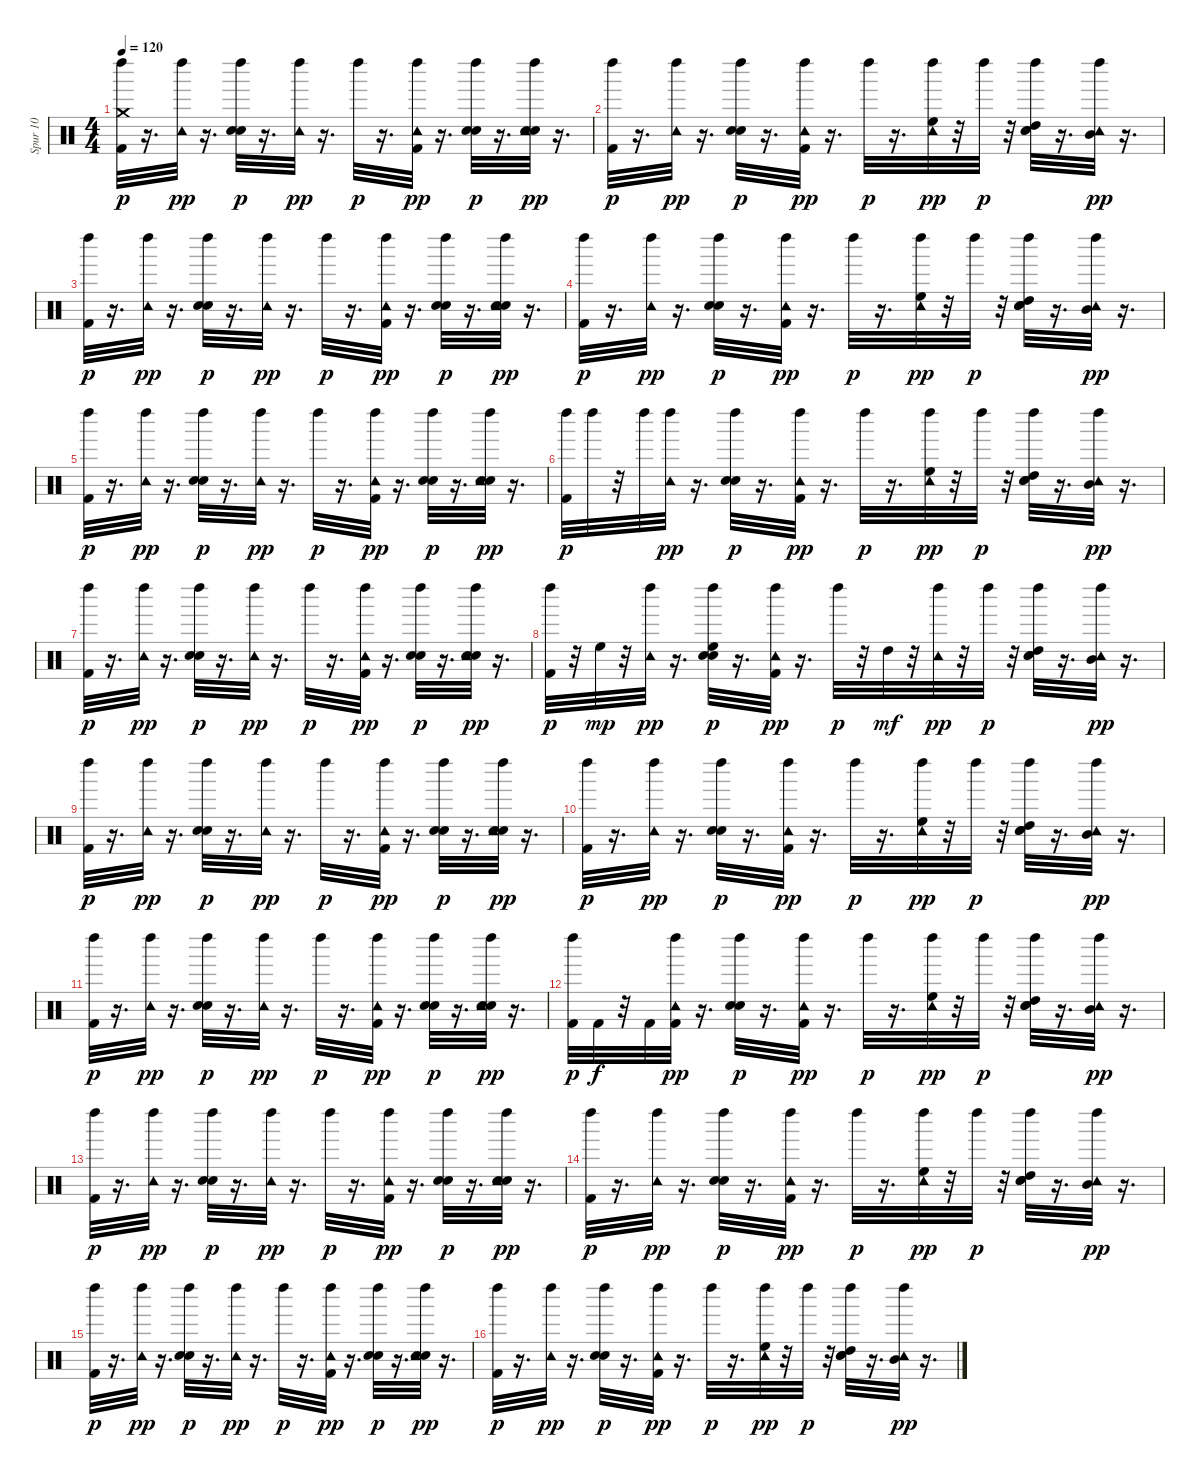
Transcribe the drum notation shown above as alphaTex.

\track ("Spur 10" "Spur 10") {instrument percussion}
\staff {score}
\articulation defaults
\ts (4 4)
\tempo 120
\clef neutral
\ks c
("Kick (hit) 2" "Crash medium (hit)" "Left Maraca (hit)").32{dy p} r.16{d} ("Tambourine (hit)" "Left Maraca (hit)").32{dy pp} r.16{d} ("Hand Clap (hit)" "Electric Snare (hit)" "Left Maraca (hit)").32{dy p} r.16{d} ("Tambourine (hit)" "Left Maraca (hit)").32{dy pp} r.16{d} "Left Maraca (hit)".32{dy p} r.16{d} ("Kick (hit) 2" "Tambourine (hit)" "Left Maraca (hit)").32{dy pp} r.16{d} ("Hand Clap (hit)" "Electric Snare (hit)" "Left Maraca (hit)").32{dy p} r.16{d} ("Hand Clap (hit)" "Electric Snare (hit)" "Tambourine (hit)" "Left Maraca (hit)").32{dy pp} r.16{d} |
("Kick (hit) 2" "Left Maraca (hit)").32{dy p} r.16{d} ("Tambourine (hit)" "Left Maraca (hit)").32{dy pp} r.16{d} ("Hand Clap (hit)" "Electric Snare (hit)" "Left Maraca (hit)").32{dy p} r.16{d} ("Kick (hit) 2" "Tambourine (hit)" "Left Maraca (hit)").32{dy pp} r.16{d} "Left Maraca (hit)".32{dy p} r.16{d} ("High Floor Tom (hit)" "Tambourine (hit)" "Left Maraca (hit)").32{dy pp} r.32 "Left Maraca (hit)".32{dy p} r.32 ("Hand Clap (hit)" "Electric Snare (hit)" "High Tom (hit)" "Left Maraca (hit)").32 r.16{d} ("Mid Tom (hit)" "Tambourine (hit)" "Left Maraca (hit)").32{dy pp} r.16{d} |
("Kick (hit) 2" "Left Maraca (hit)").32{dy p} r.16{d} ("Tambourine (hit)" "Left Maraca (hit)").32{dy pp} r.16{d} ("Hand Clap (hit)" "Electric Snare (hit)" "Left Maraca (hit)").32{dy p} r.16{d} ("Tambourine (hit)" "Left Maraca (hit)").32{dy pp} r.16{d} "Left Maraca (hit)".32{dy p} r.16{d} ("Kick (hit) 2" "Tambourine (hit)" "Left Maraca (hit)").32{dy pp} r.16{d} ("Hand Clap (hit)" "Electric Snare (hit)" "Left Maraca (hit)").32{dy p} r.16{d} ("Hand Clap (hit)" "Electric Snare (hit)" "Tambourine (hit)" "Left Maraca (hit)").32{dy pp} r.16{d} |
("Kick (hit) 2" "Left Maraca (hit)").32{dy p} r.16{d} ("Tambourine (hit)" "Left Maraca (hit)").32{dy pp} r.16{d} ("Hand Clap (hit)" "Electric Snare (hit)" "Left Maraca (hit)").32{dy p} r.16{d} ("Kick (hit) 2" "Tambourine (hit)" "Left Maraca (hit)").32{dy pp} r.16{d} "Left Maraca (hit)".32{dy p} r.16{d} ("High Floor Tom (hit)" "Tambourine (hit)" "Left Maraca (hit)").32{dy pp} r.32 "Left Maraca (hit)".32{dy p} r.32 ("Hand Clap (hit)" "Electric Snare (hit)" "High Tom (hit)" "Left Maraca (hit)").32 r.16{d} ("Mid Tom (hit)" "Tambourine (hit)" "Left Maraca (hit)").32{dy pp} r.16{d} |
("Kick (hit) 2" "Left Maraca (hit)").32{dy p} r.16{d} ("Tambourine (hit)" "Left Maraca (hit)").32{dy pp} r.16{d} ("Hand Clap (hit)" "Electric Snare (hit)" "Left Maraca (hit)").32{dy p} r.16{d} ("Tambourine (hit)" "Left Maraca (hit)").32{dy pp} r.16{d} "Left Maraca (hit)".32{dy p} r.16{d} ("Kick (hit) 2" "Tambourine (hit)" "Left Maraca (hit)").32{dy pp} r.16{d} ("Hand Clap (hit)" "Electric Snare (hit)" "Left Maraca (hit)").32{dy p} r.16{d} ("Hand Clap (hit)" "Electric Snare (hit)" "Tambourine (hit)" "Left Maraca (hit)").32{dy pp} r.16{d} |
("Kick (hit) 2" "Left Maraca (hit)").32{dy p} "Left Maraca (hit)".32 r.32 "Left Maraca (hit)".32 ("Tambourine (hit)" "Left Maraca (hit)").32{dy pp} r.16{d} ("Hand Clap (hit)" "Electric Snare (hit)" "Left Maraca (hit)").32{dy p} r.16{d} ("Kick (hit) 2" "Tambourine (hit)" "Left Maraca (hit)").32{dy pp} r.16{d} "Left Maraca (hit)".32{dy p} r.16{d} ("High Floor Tom (hit)" "Tambourine (hit)" "Left Maraca (hit)").32{dy pp} r.32 "Left Maraca (hit)".32{dy p} r.32 ("Hand Clap (hit)" "Electric Snare (hit)" "High Tom (hit)" "Left Maraca (hit)").32 r.16{d} ("Mid Tom (hit)" "Tambourine (hit)" "Left Maraca (hit)").32{dy pp} r.16{d} |
("Kick (hit) 2" "Left Maraca (hit)").32{dy p} r.16{d} ("Tambourine (hit)" "Left Maraca (hit)").32{dy pp} r.16{d} ("Hand Clap (hit)" "Electric Snare (hit)" "Left Maraca (hit)").32{dy p} r.16{d} ("Tambourine (hit)" "Left Maraca (hit)").32{dy pp} r.16{d} "Left Maraca (hit)".32{dy p} r.16{d} ("Kick (hit) 2" "Tambourine (hit)" "Left Maraca (hit)").32{dy pp} r.16{d} ("Hand Clap (hit)" "Electric Snare (hit)" "Left Maraca (hit)").32{dy p} r.16{d} ("Hand Clap (hit)" "Electric Snare (hit)" "Tambourine (hit)" "Left Maraca (hit)").32{dy pp} r.16{d} |
("Kick (hit) 2" "Left Maraca (hit)").32{dy p} r.32 "High Floor Tom (hit)".32{dy mp} r.32 ("Tambourine (hit)" "Left Maraca (hit)").32{dy pp} r.16{d} ("Hand Clap (hit)" "Electric Snare (hit)" "High Floor Tom (hit)" "Left Maraca (hit)").32{dy p} r.16{d} ("Kick (hit) 2" "Tambourine (hit)" "Left Maraca (hit)").32{dy pp} r.16{d} "Left Maraca (hit)".32{dy p} r.32 "High Tom (hit)".32{dy mf} r.32 ("Tambourine (hit)" "Left Maraca (hit)").32{dy pp} r.32 "Left Maraca (hit)".32{dy p} r.32 ("Hand Clap (hit)" "Electric Snare (hit)" "High Tom (hit)" "Left Maraca (hit)").32 r.16{d} ("Mid Tom (hit)" "Tambourine (hit)" "Left Maraca (hit)").32{dy pp} r.16{d} |
("Kick (hit) 2" "Left Maraca (hit)").32{dy p} r.16{d} ("Tambourine (hit)" "Left Maraca (hit)").32{dy pp} r.16{d} ("Hand Clap (hit)" "Electric Snare (hit)" "Left Maraca (hit)").32{dy p} r.16{d} ("Tambourine (hit)" "Left Maraca (hit)").32{dy pp} r.16{d} "Left Maraca (hit)".32{dy p} r.16{d} ("Kick (hit) 2" "Tambourine (hit)" "Left Maraca (hit)").32{dy pp} r.16{d} ("Hand Clap (hit)" "Electric Snare (hit)" "Left Maraca (hit)").32{dy p} r.16{d} ("Hand Clap (hit)" "Electric Snare (hit)" "Tambourine (hit)" "Left Maraca (hit)").32{dy pp} r.16{d} |
("Kick (hit) 2" "Left Maraca (hit)").32{dy p} r.16{d} ("Tambourine (hit)" "Left Maraca (hit)").32{dy pp} r.16{d} ("Hand Clap (hit)" "Electric Snare (hit)" "Left Maraca (hit)").32{dy p} r.16{d} ("Kick (hit) 2" "Tambourine (hit)" "Left Maraca (hit)").32{dy pp} r.16{d} "Left Maraca (hit)".32{dy p} r.16{d} ("High Floor Tom (hit)" "Tambourine (hit)" "Left Maraca (hit)").32{dy pp} r.32 "Left Maraca (hit)".32{dy p} r.32 ("Hand Clap (hit)" "Electric Snare (hit)" "High Tom (hit)" "Left Maraca (hit)").32 r.16{d} ("Mid Tom (hit)" "Tambourine (hit)" "Left Maraca (hit)").32{dy pp} r.16{d} |
("Kick (hit) 2" "Left Maraca (hit)").32{dy p} r.16{d} ("Tambourine (hit)" "Left Maraca (hit)").32{dy pp} r.16{d} ("Hand Clap (hit)" "Electric Snare (hit)" "Left Maraca (hit)").32{dy p} r.16{d} ("Tambourine (hit)" "Left Maraca (hit)").32{dy pp} r.16{d} "Left Maraca (hit)".32{dy p} r.16{d} ("Kick (hit) 2" "Tambourine (hit)" "Left Maraca (hit)").32{dy pp} r.16{d} ("Hand Clap (hit)" "Electric Snare (hit)" "Left Maraca (hit)").32{dy p} r.16{d} ("Hand Clap (hit)" "Electric Snare (hit)" "Tambourine (hit)" "Left Maraca (hit)").32{dy pp} r.16{d} |
("Kick (hit) 2" "Left Maraca (hit)").32{dy p} "Kick (hit) 2".32{dy f} r.32 "Kick (hit) 2".32 ("Kick (hit) 2" "Tambourine (hit)" "Left Maraca (hit)").32{dy pp} r.16{d} ("Hand Clap (hit)" "Electric Snare (hit)" "Left Maraca (hit)").32{dy p} r.16{d} ("Kick (hit) 2" "Tambourine (hit)" "Left Maraca (hit)").32{dy pp} r.16{d} "Left Maraca (hit)".32{dy p} r.16{d} ("High Floor Tom (hit)" "Tambourine (hit)" "Left Maraca (hit)").32{dy pp} r.32 "Left Maraca (hit)".32{dy p} r.32 ("Hand Clap (hit)" "Electric Snare (hit)" "High Tom (hit)" "Left Maraca (hit)").32 r.16{d} ("Mid Tom (hit)" "Tambourine (hit)" "Left Maraca (hit)").32{dy pp} r.16{d} |
("Kick (hit) 2" "Left Maraca (hit)").32{dy p} r.16{d} ("Tambourine (hit)" "Left Maraca (hit)").32{dy pp} r.16{d} ("Hand Clap (hit)" "Electric Snare (hit)" "Left Maraca (hit)").32{dy p} r.16{d} ("Tambourine (hit)" "Left Maraca (hit)").32{dy pp} r.16{d} "Left Maraca (hit)".32{dy p} r.16{d} ("Kick (hit) 2" "Tambourine (hit)" "Left Maraca (hit)").32{dy pp} r.16{d} ("Hand Clap (hit)" "Electric Snare (hit)" "Left Maraca (hit)").32{dy p} r.16{d} ("Hand Clap (hit)" "Electric Snare (hit)" "Tambourine (hit)" "Left Maraca (hit)").32{dy pp} r.16{d} |
("Kick (hit) 2" "Left Maraca (hit)").32{dy p} r.16{d} ("Tambourine (hit)" "Left Maraca (hit)").32{dy pp} r.16{d} ("Hand Clap (hit)" "Electric Snare (hit)" "Left Maraca (hit)").32{dy p} r.16{d} ("Kick (hit) 2" "Tambourine (hit)" "Left Maraca (hit)").32{dy pp} r.16{d} "Left Maraca (hit)".32{dy p} r.16{d} ("High Floor Tom (hit)" "Tambourine (hit)" "Left Maraca (hit)").32{dy pp} r.32 "Left Maraca (hit)".32{dy p} r.32 ("Hand Clap (hit)" "Electric Snare (hit)" "High Tom (hit)" "Left Maraca (hit)").32 r.16{d} ("Mid Tom (hit)" "Tambourine (hit)" "Left Maraca (hit)").32{dy pp} r.16{d} |
("Kick (hit) 2" "Left Maraca (hit)").32{dy p} r.16{d} ("Tambourine (hit)" "Left Maraca (hit)").32{dy pp} r.16{d} ("Hand Clap (hit)" "Electric Snare (hit)" "Left Maraca (hit)").32{dy p} r.16{d} ("Tambourine (hit)" "Left Maraca (hit)").32{dy pp} r.16{d} "Left Maraca (hit)".32{dy p} r.16{d} ("Kick (hit) 2" "Tambourine (hit)" "Left Maraca (hit)").32{dy pp} r.16{d} ("Hand Clap (hit)" "Electric Snare (hit)" "Left Maraca (hit)").32{dy p} r.16{d} ("Hand Clap (hit)" "Electric Snare (hit)" "Tambourine (hit)" "Left Maraca (hit)").32{dy pp} r.16{d} |
("Kick (hit) 2" "Left Maraca (hit)").32{dy p} r.16{d} ("Tambourine (hit)" "Left Maraca (hit)").32{dy pp} r.16{d} ("Hand Clap (hit)" "Electric Snare (hit)" "Left Maraca (hit)").32{dy p} r.16{d} ("Kick (hit) 2" "Tambourine (hit)" "Left Maraca (hit)").32{dy pp} r.16{d} "Left Maraca (hit)".32{dy p} r.16{d} ("High Floor Tom (hit)" "Tambourine (hit)" "Left Maraca (hit)").32{dy pp} r.32 "Left Maraca (hit)".32{dy p} r.32 ("Hand Clap (hit)" "Electric Snare (hit)" "High Tom (hit)" "Left Maraca (hit)").32 r.16{d} ("Mid Tom (hit)" "Tambourine (hit)" "Left Maraca (hit)").32{dy pp} r.16{d}
